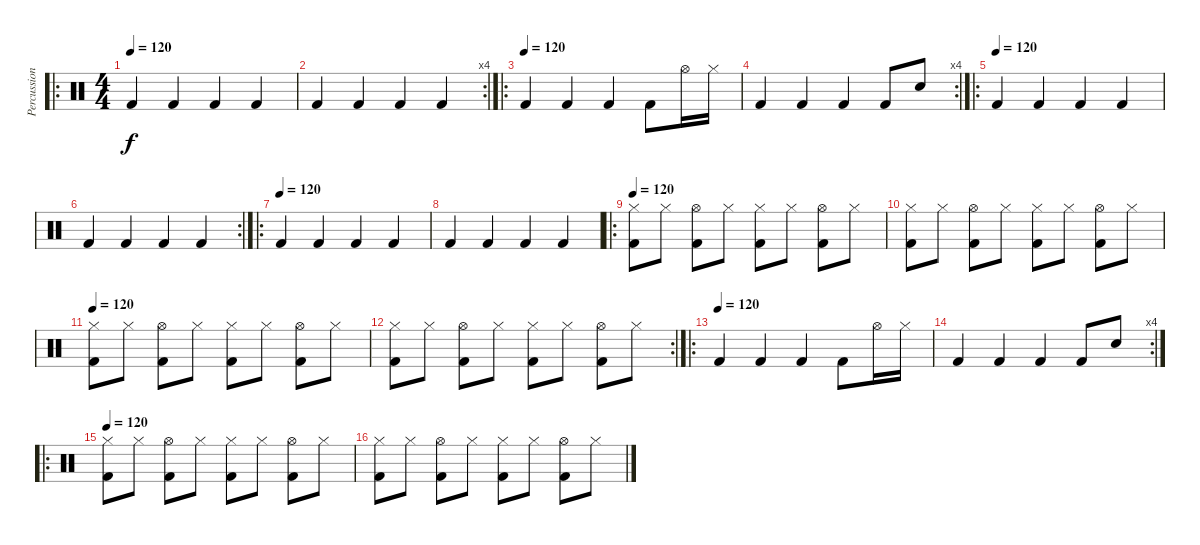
\track ("Percussions" "Percussion") {instrument percussion}
\staff {score}
\articulation defaults
\ro
\ts (4 4)
\tempo 120
\clef neutral
\ks c "Kick (hit) 2".4{dy f} "Kick (hit) 2".4 "Kick (hit) 2".4 "Kick (hit) 2".4
|
\rc 4 "Kick (hit) 2".4 "Kick (hit) 2".4 "Kick (hit) 2".4 "Kick (hit) 2".4
|
\ro
\tempo (120)
"Kick (hit) 2".4 "Kick (hit) 2".4 "Kick (hit) 2".4 "Kick (hit) 2".8 "Hi-Hat (open)".16 "Hi-Hat (closed)".16 |
\rc 4 "Kick (hit) 2".4 "Kick (hit) 2".4 "Kick (hit) 2".4 "Kick (hit) 2".8 "Electric Snare (hit)".8
|
\ro
\tempo (120)
"Kick (hit) 2".4 "Kick (hit) 2".4 "Kick (hit) 2".4 "Kick (hit) 2".4 |
\rc 2 "Kick (hit) 2".4 "Kick (hit) 2".4 "Kick (hit) 2".4 "Kick (hit) 2".4
|
\ro
\tempo (120)
"Kick (hit) 2".4 "Kick (hit) 2".4 "Kick (hit) 2".4 "Kick (hit) 2".4 |
"Kick (hit) 2".4 "Kick (hit) 2".4 "Kick (hit) 2".4 "Kick (hit) 2".4 |
\ro
\tempo 120
("Kick (hit) 2" "Hi-Hat (closed)").8 "Hi-Hat (closed)".8 ("Kick (hit) 2" "Hi-Hat (open)").8 "Hi-Hat (closed)".8 ("Kick (hit) 2" "Hi-Hat (closed)").8 "Hi-Hat (closed)".8 ("Kick (hit) 2" "Hi-Hat (open)").8 "Hi-Hat (closed)".8 |
("Kick (hit) 2" "Hi-Hat (closed)").8 "Hi-Hat (closed)".8 ("Kick (hit) 2" "Hi-Hat (open)").8 "Hi-Hat (closed)".8 ("Kick (hit) 2" "Hi-Hat (closed)").8 "Hi-Hat (closed)".8 ("Kick (hit) 2" "Hi-Hat (open)").8 "Hi-Hat (closed)".8 |
\tempo 120
("Kick (hit) 2" "Hi-Hat (closed)").8 "Hi-Hat (closed)".8 ("Kick (hit) 2" "Hi-Hat (open)").8 "Hi-Hat (closed)".8 ("Kick (hit) 2" "Hi-Hat (closed)").8 "Hi-Hat (closed)".8 ("Kick (hit) 2" "Hi-Hat (open)").8 "Hi-Hat (closed)".8 |
\rc 2
("Kick (hit) 2" "Hi-Hat (closed)").8 "Hi-Hat (closed)".8 ("Kick (hit) 2" "Hi-Hat (open)").8 "Hi-Hat (closed)".8 ("Kick (hit) 2" "Hi-Hat (closed)").8 "Hi-Hat (closed)".8 ("Kick (hit) 2" "Hi-Hat (open)").8 "Hi-Hat (closed)".8 |
\ro
\tempo (120)
"Kick (hit) 2".4 "Kick (hit) 2".4 "Kick (hit) 2".4 "Kick (hit) 2".8 "Hi-Hat (open)".16 "Hi-Hat (closed)".16 |
\rc 4 "Kick (hit) 2".4 "Kick (hit) 2".4 "Kick (hit) 2".4 "Kick (hit) 2".8 "Electric Snare (hit)".8
|
\ro
\tempo 120
("Kick (hit) 2" "Hi-Hat (closed)").8 "Hi-Hat (closed)".8 ("Kick (hit) 2" "Hi-Hat (open)").8 "Hi-Hat (closed)".8 ("Kick (hit) 2" "Hi-Hat (closed)").8 "Hi-Hat (closed)".8 ("Kick (hit) 2" "Hi-Hat (open)").8 "Hi-Hat (closed)".8 |
("Kick (hit) 2" "Hi-Hat (closed)").8 "Hi-Hat (closed)".8 ("Kick (hit) 2" "Hi-Hat (open)").8 "Hi-Hat (closed)".8 ("Kick (hit) 2" "Hi-Hat (closed)").8 "Hi-Hat (closed)".8 ("Kick (hit) 2" "Hi-Hat (open)").8 "Hi-Hat (closed)".8
